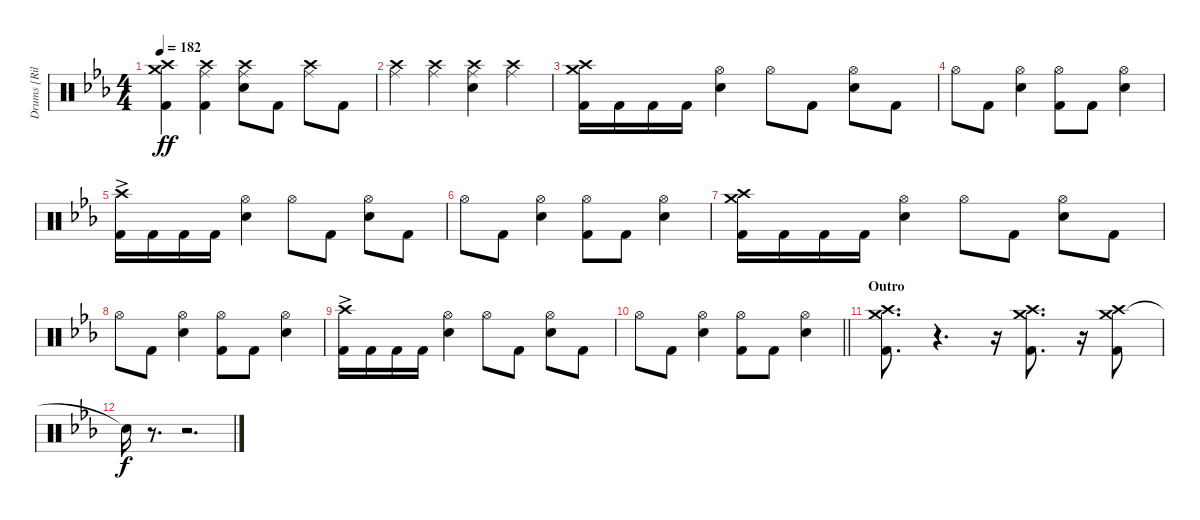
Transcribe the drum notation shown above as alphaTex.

\track ("Drums [Riley]" "Drums [Ril") {instrument percussion}
\staff {score}
\articulation defaults
\ts (4 4)
\tempo 182
\clef neutral
\ks eb
("Crash medium (hit)" "Crash high (hit)" "Kick (hit) 2").4{dy ff} ("Crash high (hit)" "Ride (middle)" "Kick (hit) 2").4 ("Crash high (hit)" "Ride (middle)" "Electric Snare (hit)").8 "Kick (hit) 2".8 ("Crash high (hit)" "Ride (middle)").8 "Kick (hit) 2".8 |
("Crash high (hit)" "Ride (middle)").4 ("Crash high (hit)" "Ride (middle)").4 ("Crash high (hit)" "Ride (middle)" "Electric Snare (hit)").4 ("Crash high (hit)" "Ride (middle)").4 |
("Crash medium (hit)" "Crash high (hit)" "Kick (hit) 2").16 "Kick (hit) 2".16 "Kick (hit) 2".16 "Kick (hit) 2".16 ("Hi-Hat (open)" "Electric Snare (hit)").4 "Hi-Hat (open)".8 "Kick (hit) 2".8 ("Hi-Hat (open)" "Electric Snare (hit)").8 "Kick (hit) 2".8 |
"Hi-Hat (open)".8 "Kick (hit) 2".8 ("Hi-Hat (open)" "Electric Snare (hit)").4 ("Hi-Hat (open)" "Kick (hit) 2").8 "Kick (hit) 2".8 ("Hi-Hat (open)" "Electric Snare (hit)").4 |
("Crash high (hit)"{ac} "Kick (hit) 2").16 "Kick (hit) 2".16 "Kick (hit) 2".16 "Kick (hit) 2".16 ("Hi-Hat (open)" "Electric Snare (hit)").4 "Hi-Hat (open)".8 "Kick (hit) 2".8 ("Hi-Hat (open)" "Electric Snare (hit)").8 "Kick (hit) 2".8 |
"Hi-Hat (open)".8 "Kick (hit) 2".8 ("Hi-Hat (open)" "Electric Snare (hit)").4 ("Hi-Hat (open)" "Kick (hit) 2").8 "Kick (hit) 2".8 ("Hi-Hat (open)" "Electric Snare (hit)").4 |
("Crash medium (hit)" "Crash high (hit)" "Kick (hit) 2").16 "Kick (hit) 2".16 "Kick (hit) 2".16 "Kick (hit) 2".16 ("Hi-Hat (open)" "Electric Snare (hit)").4 "Hi-Hat (open)".8 "Kick (hit) 2".8 ("Hi-Hat (open)" "Electric Snare (hit)").8 "Kick (hit) 2".8 |
"Hi-Hat (open)".8 "Kick (hit) 2".8 ("Hi-Hat (open)" "Electric Snare (hit)").4 ("Hi-Hat (open)" "Kick (hit) 2").8 "Kick (hit) 2".8 ("Hi-Hat (open)" "Electric Snare (hit)").4 |
("Crash high (hit)"{ac} "Kick (hit) 2").16 "Kick (hit) 2".16 "Kick (hit) 2".16 "Kick (hit) 2".16 ("Hi-Hat (open)" "Electric Snare (hit)").4 "Hi-Hat (open)".8 "Kick (hit) 2".8 ("Hi-Hat (open)" "Electric Snare (hit)").8 "Kick (hit) 2".8 |
\barLineRight lightlight "Hi-Hat (open)".8 "Kick (hit) 2".8
("Hi-Hat (open)" "Electric Snare (hit)").4 ("Hi-Hat (open)" "Kick (hit) 2").8 "Kick (hit) 2".8 ("Hi-Hat (open)" "Electric Snare (hit)").4 |
\section ("" "Outro")
("Crash medium (hit)" "Crash high (hit)" "Kick (hit) 2").8{d} r.4{d volume 0} r.16 ("Crash medium (hit)" "Crash high (hit)" "Kick (hit) 2").8{d volume 14} r.16{volume 0} ("Crash medium (hit)" "Crash high (hit)" "Kick (hit) 2").8{volume 14} |
"Snare (hit)"{t}.16{dy f} r.8{d volume 0} r.2{d}
